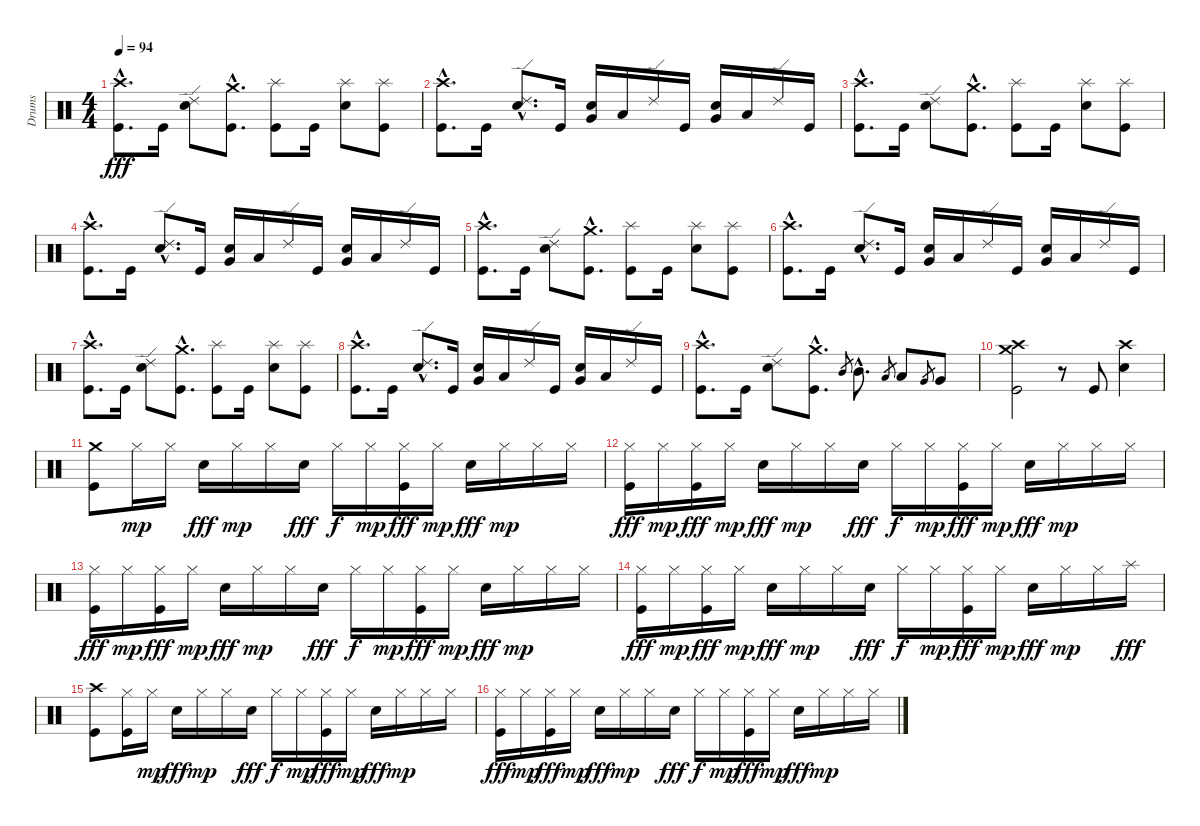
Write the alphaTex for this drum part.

\track ("Drums" "Drums") {instrument percussion}
\staff {score}
\articulation defaults
\ts (4 4)
\tempo 94
\clef neutral
\ks c
("Crash high (hit)"{hac} "Kick (hit)"{hac}).8{d dy fff} "Kick (hit)".16 ("Ride (edge) 2" "Snare (hit) 2").8 ("Crash medium (hit)"{hac} "Kick (hit)"{hac}).8{d} ("Splash (hit)" "Kick (hit)").8 "Kick (hit)".16 ("Splash (hit)" "Snare (hit) 2").8 ("Splash (hit)" "Kick (hit)").8 |
("Crash high (hit)"{hac} "Kick (hit)"{hac}).8{d} "Kick (hit)".16 ("Ride (edge) 2"{hac} "Snare (hit) 2"{hac}).8{d} "Kick (hit)".16 ("Very Low Tom (hit)" "Snare (hit) 2").16 "Low Floor Tom (hit)".16 "Ride (edge) 2".16 "Kick (hit)".16 ("Very Low Tom (hit)" "Snare (hit) 2").16 "Low Floor Tom (hit)".16 "Ride (edge) 2".16 "Kick (hit)".16 |
("Crash high (hit)"{hac} "Kick (hit)"{hac}).8{d} "Kick (hit)".16 ("Ride (edge) 2" "Snare (hit) 2").8 ("Crash medium (hit)"{hac} "Kick (hit)"{hac}).8{d} ("Splash (hit)" "Kick (hit)").8 "Kick (hit)".16 ("Splash (hit)" "Snare (hit) 2").8 ("Splash (hit)" "Kick (hit)").8 |
("Crash high (hit)"{hac} "Kick (hit)"{hac}).8{d} "Kick (hit)".16 ("Ride (edge) 2"{hac} "Snare (hit) 2"{hac}).8{d} "Kick (hit)".16 ("Very Low Tom (hit)" "Snare (hit) 2").16 "Low Floor Tom (hit)".16 "Ride (edge) 2".16 "Kick (hit)".16 ("Very Low Tom (hit)" "Snare (hit) 2").16 "Low Floor Tom (hit)".16 "Ride (edge) 2".16 "Kick (hit)".16 |
("Crash high (hit)"{hac} "Kick (hit)"{hac}).8{d} "Kick (hit)".16 ("Ride (edge) 2" "Snare (hit) 2").8 ("Crash medium (hit)"{hac} "Kick (hit)"{hac}).8{d} ("Splash (hit)" "Kick (hit)").8 "Kick (hit)".16 ("Splash (hit)" "Snare (hit) 2").8 ("Splash (hit)" "Kick (hit)").8 |
("Crash high (hit)"{hac} "Kick (hit)"{hac}).8{d} "Kick (hit)".16 ("Ride (edge) 2"{hac} "Snare (hit) 2"{hac}).8{d} "Kick (hit)".16 ("Very Low Tom (hit)" "Snare (hit) 2").16 "Low Floor Tom (hit)".16 "Ride (edge) 2".16 "Kick (hit)".16 ("Very Low Tom (hit)" "Snare (hit) 2").16 "Low Floor Tom (hit)".16 "Ride (edge) 2".16 "Kick (hit)".16 |
("Crash high (hit)"{hac} "Kick (hit)"{hac}).8{d} "Kick (hit)".16 ("Ride (edge) 2" "Snare (hit) 2").8 ("Crash medium (hit)"{hac} "Kick (hit)"{hac}).8{d} ("Splash (hit)" "Kick (hit)").8 "Kick (hit)".16 ("Splash (hit)" "Snare (hit) 2").8 ("Splash (hit)" "Kick (hit)").8 |
("Crash high (hit)"{hac} "Kick (hit)"{hac}).8{d} "Kick (hit)".16 ("Ride (edge) 2"{hac} "Snare (hit) 2"{hac}).8{d} "Kick (hit)".16 ("Very Low Tom (hit)" "Snare (hit) 2").16 "Low Floor Tom (hit)".16 "Ride (edge) 2".16 "Kick (hit)".16 ("Very Low Tom (hit)" "Snare (hit) 2").16 "Low Floor Tom (hit)".16 "Ride (edge) 2".16 "Kick (hit)".16 |
("Crash high (hit)"{hac} "Kick (hit)"{hac}).8{d} "Kick (hit)".16 ("Ride (edge) 2" "Snare (hit) 2").8 ("Crash medium (hit)"{hac} "Kick (hit)"{hac}).8{d} "Mid Tom (hit)".8{gr} "Mid Tom (hit)"{hac}.8{d} "Low Tom (hit)".8{gr} "Low Tom (hit)".8 "Very Low Tom (hit)".8{gr} "Very Low Tom (hit)".8 |
("Crash high (hit)" "Crash medium (hit)" "Kick (hit)").2 r.8 "Kick (hit)".8 ("Crash high (hit)" "Snare (hit) 2").4 |
("Crash medium (hit)" "Kick (hit)").8 "Hi-Hat (closed)".16{dy mp} "Hi-Hat (closed)".16 "Snare (hit) 2".16{dy fff} "Hi-Hat (closed)".16{dy mp} "Hi-Hat (closed)".16 "Snare (hit) 2".16{dy fff} "Hi-Hat (closed)".16{dy f} "Hi-Hat (closed)".16{dy mp} ("Hi-Hat (closed)" "Kick (hit)").16{dy fff} "Hi-Hat (closed)".16{dy mp} "Snare (hit) 2".16{dy fff} "Hi-Hat (closed)".16{dy mp} "Hi-Hat (closed)".16 "Hi-Hat (closed)".16 |
("Hi-Hat (closed)" "Kick (hit)").16{dy fff} "Hi-Hat (closed)".16{dy mp} ("Hi-Hat (closed)" "Kick (hit)").16{dy fff} "Hi-Hat (closed)".16{dy mp} "Snare (hit) 2".16{dy fff} "Hi-Hat (closed)".16{dy mp} "Hi-Hat (closed)".16 "Snare (hit) 2".16{dy fff} "Hi-Hat (closed)".16{dy f} "Hi-Hat (closed)".16{dy mp} ("Hi-Hat (closed)" "Kick (hit)").16{dy fff} "Hi-Hat (closed)".16{dy mp} "Snare (hit) 2".16{dy fff} "Hi-Hat (closed)".16{dy mp} "Hi-Hat (closed)".16 "Hi-Hat (closed)".16 |
("Hi-Hat (closed)" "Kick (hit)").16{dy fff} "Hi-Hat (closed)".16{dy mp} ("Hi-Hat (closed)" "Kick (hit)").16{dy fff} "Hi-Hat (closed)".16{dy mp} "Snare (hit) 2".16{dy fff} "Hi-Hat (closed)".16{dy mp} "Hi-Hat (closed)".16 "Snare (hit) 2".16{dy fff} "Hi-Hat (closed)".16{dy f} "Hi-Hat (closed)".16{dy mp} ("Hi-Hat (closed)" "Kick (hit)").16{dy fff} "Hi-Hat (closed)".16{dy mp} "Snare (hit) 2".16{dy fff} "Hi-Hat (closed)".16{dy mp} "Hi-Hat (closed)".16 "Hi-Hat (closed)".16 |
("Hi-Hat (closed)" "Kick (hit)").16{dy fff} "Hi-Hat (closed)".16{dy mp} ("Hi-Hat (closed)" "Kick (hit)").16{dy fff} "Hi-Hat (closed)".16{dy mp} "Snare (hit) 2".16{dy fff} "Hi-Hat (closed)".16{dy mp} "Hi-Hat (closed)".16 "Snare (hit) 2".16{dy fff} "Hi-Hat (closed)".16{dy f} "Hi-Hat (closed)".16{dy mp} ("Hi-Hat (closed)" "Kick (hit)").16{dy fff} "Hi-Hat (closed)".16{dy mp} "Snare (hit) 2".16{dy fff} "Hi-Hat (closed)".16{dy mp} "Hi-Hat (closed)".16 "Splash (hit)".16{dy fff} |
("Crash high (hit)" "Kick (hit)").8 ("Hi-Hat (closed)" "Kick (hit)").16 "Hi-Hat (closed)".16{dy mp} "Snare (hit) 2".16{dy fff} "Hi-Hat (closed)".16{dy mp} "Hi-Hat (closed)".16 "Snare (hit) 2".16{dy fff} "Hi-Hat (closed)".16{dy f} "Hi-Hat (closed)".16{dy mp} ("Hi-Hat (closed)" "Kick (hit)").16{dy fff} "Hi-Hat (closed)".16{dy mp} "Snare (hit) 2".16{dy fff} "Hi-Hat (closed)".16{dy mp} "Hi-Hat (closed)".16 "Hi-Hat (closed)".16 |
("Hi-Hat (closed)" "Kick (hit)").16{dy fff} "Hi-Hat (closed)".16{dy mp} ("Hi-Hat (closed)" "Kick (hit)").16{dy fff} "Hi-Hat (closed)".16{dy mp} "Snare (hit) 2".16{dy fff} "Hi-Hat (closed)".16{dy mp} "Hi-Hat (closed)".16 "Snare (hit) 2".16{dy fff} "Hi-Hat (closed)".16{dy f} "Hi-Hat (closed)".16{dy mp} ("Hi-Hat (closed)" "Kick (hit)").16{dy fff} "Hi-Hat (closed)".16{dy mp} "Snare (hit) 2".16{dy fff} "Hi-Hat (closed)".16{dy mp} "Hi-Hat (closed)".16 "Hi-Hat (closed)".16
